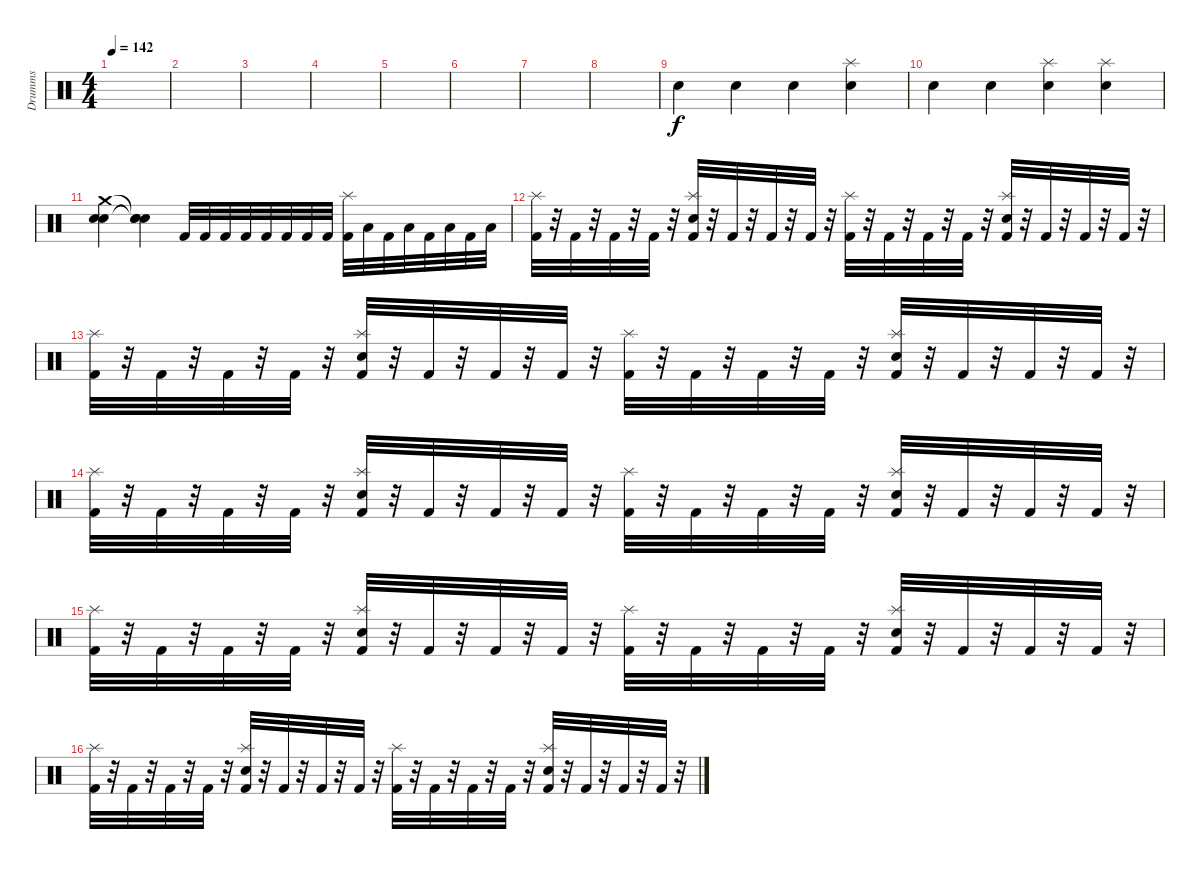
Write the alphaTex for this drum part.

\track ("Drumms" "Drumms") {instrument percussion}
\staff {score}
\articulation defaults
\ts (4 4)
\tempo 142
\clef neutral
\ks c
|
|
|
|
|
|
|
|
"Electric Snare (hit)".4 "Electric Snare (hit)".4 "Electric Snare (hit)".4 ("Splash (hit)" "Snare (hit) 2").4 |
"Electric Snare (hit)".4 "Electric Snare (hit)".4 ("Splash (hit)" "Electric Snare (hit)").4 ("Splash (hit)" "Snare (hit) 2").4 |
("Crash medium (hit)" "Electric Snare (hit)" "Snare (hit) 2").4 ("Snare (hit)"{t} "Snare (hit)"{t} "Snare (hit)"{t}).4 "Kick (hit) 2".32 "Kick (hit) 2".32 "Kick (hit) 2".32 "Kick (hit) 2".32 "Kick (hit) 2".32 "Kick (hit) 2".32 "Kick (hit) 2".32 "Kick (hit) 2".32 ("Kick (hit) 2" "Splash (hit)").32 "Low Floor Tom (hit)".32 "Kick (hit) 2".32 "Low Floor Tom (hit)".32 "Kick (hit) 2".32 "Low Floor Tom (hit)".32 "Kick (hit) 2".32 "Low Floor Tom (hit)".32 |
("Splash (hit)" "Kick (hit) 2").32 r.32 "Kick (hit) 2".32 r.32 "Kick (hit) 2".32 r.32 "Kick (hit) 2".32 r.32 ("Splash (hit)" "Kick (hit) 2" "Electric Snare (hit)").32 r.32 "Kick (hit) 2".32 r.32 "Kick (hit) 2".32 r.32 "Kick (hit) 2".32 r.32 ("Splash (hit)" "Kick (hit) 2").32 r.32 "Kick (hit) 2".32 r.32 "Kick (hit) 2".32 r.32 "Kick (hit) 2".32 r.32 ("Splash (hit)" "Kick (hit) 2" "Electric Snare (hit)").32 r.32 "Kick (hit) 2".32 r.32 "Kick (hit) 2".32 r.32 "Kick (hit) 2".32 r.32 |
("Splash (hit)" "Kick (hit) 2").32 r.32 "Kick (hit) 2".32 r.32 "Kick (hit) 2".32 r.32 "Kick (hit) 2".32 r.32 ("Splash (hit)" "Kick (hit) 2" "Electric Snare (hit)").32 r.32 "Kick (hit) 2".32 r.32 "Kick (hit) 2".32 r.32 "Kick (hit) 2".32 r.32 ("Splash (hit)" "Kick (hit) 2").32 r.32 "Kick (hit) 2".32 r.32 "Kick (hit) 2".32 r.32 "Kick (hit) 2".32 r.32 ("Splash (hit)" "Kick (hit) 2" "Electric Snare (hit)").32 r.32 "Kick (hit) 2".32 r.32 "Kick (hit) 2".32 r.32 "Kick (hit) 2".32 r.32 |
("Splash (hit)" "Kick (hit) 2").32 r.32 "Kick (hit) 2".32 r.32 "Kick (hit) 2".32 r.32 "Kick (hit) 2".32 r.32 ("Splash (hit)" "Kick (hit) 2" "Electric Snare (hit)").32 r.32 "Kick (hit) 2".32 r.32 "Kick (hit) 2".32 r.32 "Kick (hit) 2".32 r.32 ("Splash (hit)" "Kick (hit) 2").32 r.32 "Kick (hit) 2".32 r.32 "Kick (hit) 2".32 r.32 "Kick (hit) 2".32 r.32 ("Splash (hit)" "Kick (hit) 2" "Electric Snare (hit)").32 r.32 "Kick (hit) 2".32 r.32 "Kick (hit) 2".32 r.32 "Kick (hit) 2".32 r.32 |
("Splash (hit)" "Kick (hit) 2").32 r.32 "Kick (hit) 2".32 r.32 "Kick (hit) 2".32 r.32 "Kick (hit) 2".32 r.32 ("Splash (hit)" "Kick (hit) 2" "Electric Snare (hit)").32 r.32 "Kick (hit) 2".32 r.32 "Kick (hit) 2".32 r.32 "Kick (hit) 2".32 r.32 ("Splash (hit)" "Kick (hit) 2").32 r.32 "Kick (hit) 2".32 r.32 "Kick (hit) 2".32 r.32 "Kick (hit) 2".32 r.32 ("Splash (hit)" "Kick (hit) 2" "Electric Snare (hit)").32 r.32 "Kick (hit) 2".32 r.32 "Kick (hit) 2".32 r.32 "Kick (hit) 2".32 r.32 |
("Splash (hit)" "Kick (hit) 2").32 r.32 "Kick (hit) 2".32 r.32 "Kick (hit) 2".32 r.32 "Kick (hit) 2".32 r.32 ("Splash (hit)" "Kick (hit) 2" "Electric Snare (hit)").32 r.32 "Kick (hit) 2".32 r.32 "Kick (hit) 2".32 r.32 "Kick (hit) 2".32 r.32 ("Splash (hit)" "Kick (hit) 2").32 r.32 "Kick (hit) 2".32 r.32 "Kick (hit) 2".32 r.32 "Kick (hit) 2".32 r.32 ("Splash (hit)" "Kick (hit) 2" "Electric Snare (hit)").32 r.32 "Kick (hit) 2".32 r.32 "Kick (hit) 2".32 r.32 "Kick (hit) 2".32 r.32
